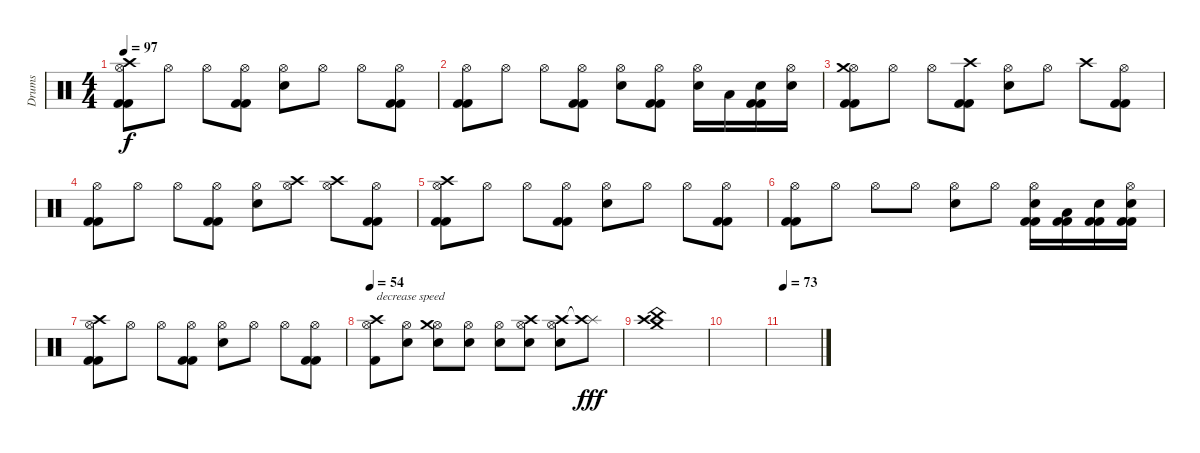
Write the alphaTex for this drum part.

\track ("Drums" "Drums") {instrument percussion}
\staff {score}
\articulation defaults
\ts (4 4)
\tempo 97
\clef neutral
\ks c
("Hi-Hat (open)" "Crash high (hit)" "Kick (hit) 2" "Kick (hit) 2").8{dy f} "Hi-Hat (open)".8 "Hi-Hat (open)".8 ("Hi-Hat (open)" "Kick (hit) 2" "Kick (hit) 2").8 ("Hi-Hat (open)" "Electric Snare (hit)").8 "Hi-Hat (open)".8 "Hi-Hat (open)".8 ("Hi-Hat (open)" "Kick (hit) 2" "Kick (hit) 2").8 |
("Hi-Hat (open)" "Kick (hit) 2" "Kick (hit) 2").8 "Hi-Hat (open)".8 "Hi-Hat (open)".8 ("Hi-Hat (open)" "Kick (hit) 2" "Kick (hit) 2").8 ("Hi-Hat (open)" "Electric Snare (hit)").8 ("Hi-Hat (open)" "Kick (hit) 2" "Kick (hit) 2").8 ("Hi-Hat (open)" "Electric Snare (hit)").16 "Low Tom (hit)".16 ("Electric Snare (hit)" "Kick (hit) 2" "Kick (hit) 2").16 ("Hi-Hat (open)" "Electric Snare (hit)").16 |
("Hi-Hat (open)" "Crash medium (hit)" "Kick (hit) 2" "Kick (hit) 2").8 "Hi-Hat (open)".8 "Hi-Hat (open)".8 ("Crash high (hit)" "Kick (hit) 2" "Kick (hit) 2").8 ("Hi-Hat (open)" "Electric Snare (hit)").8 "Hi-Hat (open)".8 "Crash high (hit)".8 ("Hi-Hat (open)" "Kick (hit) 2" "Kick (hit) 2").8 |
("Hi-Hat (open)" "Kick (hit) 2" "Kick (hit) 2").8 "Hi-Hat (open)".8 "Hi-Hat (open)".8 ("Hi-Hat (open)" "Kick (hit) 2" "Kick (hit) 2").8 ("Hi-Hat (open)" "Electric Snare (hit)").8 ("Hi-Hat (open)" "Crash high (hit)").8 ("Hi-Hat (open)" "Crash high (hit)").8 ("Hi-Hat (open)" "Kick (hit) 2" "Kick (hit) 2").8 |
("Hi-Hat (open)" "Crash high (hit)" "Kick (hit) 2" "Kick (hit) 2").8 "Hi-Hat (open)".8 "Hi-Hat (open)".8 ("Hi-Hat (open)" "Kick (hit) 2" "Kick (hit) 2").8 ("Hi-Hat (open)" "Electric Snare (hit)").8 "Hi-Hat (open)".8 "Hi-Hat (open)".8 ("Hi-Hat (open)" "Kick (hit) 2" "Kick (hit) 2").8 |
("Hi-Hat (open)" "Kick (hit) 2" "Kick (hit) 2").8 "Hi-Hat (open)".8 "Hi-Hat (open)".8 "Hi-Hat (open)".8 ("Hi-Hat (open)" "Electric Snare (hit)").8 "Hi-Hat (open)".8 ("Hi-Hat (open)" "Snare (hit) 2" "Kick (hit) 2" "Kick (hit) 2").16 ("Low Tom (hit)" "Kick (hit) 2" "Kick (hit) 2").16 ("Electric Snare (hit)" "Kick (hit) 2" "Kick (hit) 2").16 ("Hi-Hat (open)" "Electric Snare (hit)" "Kick (hit) 2" "Kick (hit) 2").16 |
("Hi-Hat (open)" "Crash high (hit)" "Kick (hit) 2" "Kick (hit) 2").8 "Hi-Hat (open)".8 "Hi-Hat (open)".8 ("Hi-Hat (open)" "Kick (hit) 2" "Kick (hit) 2").8 ("Hi-Hat (open)" "Electric Snare (hit)").8 "Hi-Hat (open)".8 "Hi-Hat (open)".8 ("Hi-Hat (open)" "Kick (hit) 2" "Kick (hit) 2").8 |
\tempo 54
("Hi-Hat (open)" "Crash high (hit)" "Kick (hit) 2").8{txt "decrease speed"} ("Hi-Hat (open)" "Snare (hit) 2").8 ("Hi-Hat (open)" "Crash medium (hit)" "Electric Snare (hit)").8 ("Hi-Hat (open)" "Snare (hit) 2").8 ("Hi-Hat (open)" "Electric Snare (hit)").8 ("Hi-Hat (open)" "Crash high (hit)" "Snare (hit) 2").8 ("Hi-Hat (open)" "Crash high (hit)" "Snare (hit) 2").8 ("Splash (hit)" "Crash high (hit)"{t}).8{dy fff} |
("Crash high (hit)" "Crash medium (hit)" "China (hit)").1 |
|
\tempo 73
